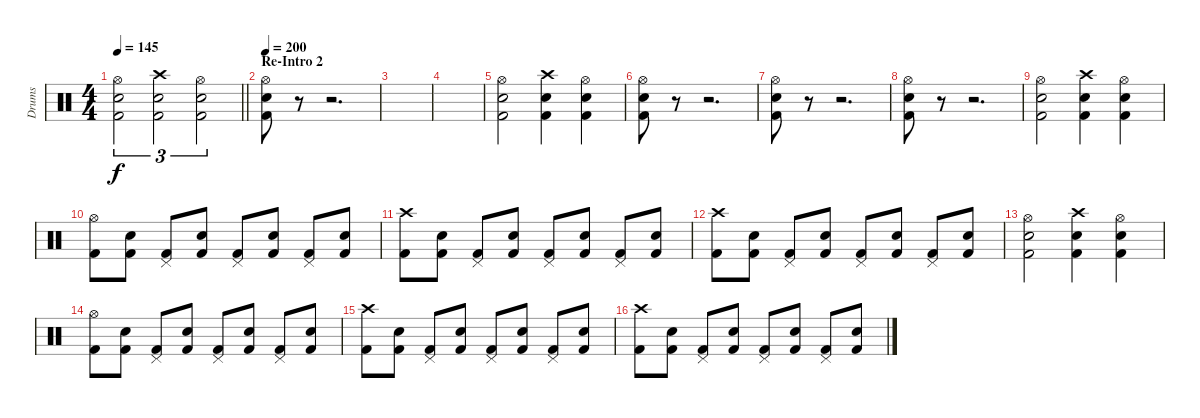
\track ("Drums" "Drums") {instrument percussion}
\staff {score}
\articulation defaults
\ts (4 4)
\tempo 145
\clef neutral
\barLineRight lightlight
\ks c
("Hi-Hat (open)" "Snare (hit) 2" "Kick (hit) 2").2{tu (3 2) dy f} ("Crash high (hit)" "Snare (hit) 2" "Kick (hit) 2").2{tu (3 2)} ("Hi-Hat (open)" "Snare (hit) 2" "Kick (hit) 2").2{tu (3 2)} |
\section ("" "Re-Intro 2")
\tempo 200
("Hi-Hat (open)" "Snare (hit) 2" "Kick (hit) 2").8 r.8 r.2{d} |
|
|
("Hi-Hat (open)" "Snare (hit) 2" "Kick (hit) 2").2 ("Crash high (hit)" "Snare (hit) 2" "Kick (hit) 2").4 ("Hi-Hat (open)" "Snare (hit) 2" "Kick (hit) 2").4 |
("Hi-Hat (open)" "Snare (hit) 2" "Kick (hit) 2").8 r.8 r.2{d} |
("Hi-Hat (open)" "Snare (hit) 2" "Kick (hit) 2").8 r.8 r.2{d} |
("Hi-Hat (open)" "Snare (hit) 2" "Kick (hit) 2").8 r.8 r.2{d} |
("Hi-Hat (open)" "Snare (hit) 2" "Kick (hit) 2").2 ("Crash high (hit)" "Snare (hit) 2" "Kick (hit) 2").4 ("Hi-Hat (open)" "Snare (hit) 2" "Kick (hit) 2").4 |
("Hi-Hat (open)" "Kick (hit) 2").8 ("Snare (hit) 2" "Kick (hit) 2").8 ("Pedal Hi-Hat (hit)" "Kick (hit) 2").8 ("Snare (hit) 2" "Kick (hit) 2").8 ("Pedal Hi-Hat (hit)" "Kick (hit) 2").8 ("Snare (hit) 2" "Kick (hit) 2").8 ("Pedal Hi-Hat (hit)" "Kick (hit) 2").8 ("Snare (hit) 2" "Kick (hit) 2").8 |
("Crash high (hit)" "Kick (hit) 2").8 ("Snare (hit) 2" "Kick (hit) 2").8 ("Pedal Hi-Hat (hit)" "Kick (hit) 2").8 ("Snare (hit) 2" "Kick (hit) 2").8 ("Pedal Hi-Hat (hit)" "Kick (hit) 2").8 ("Snare (hit) 2" "Kick (hit) 2").8 ("Pedal Hi-Hat (hit)" "Kick (hit) 2").8 ("Snare (hit) 2" "Kick (hit) 2").8 |
("Crash high (hit)" "Kick (hit) 2").8 ("Snare (hit) 2" "Kick (hit) 2").8 ("Pedal Hi-Hat (hit)" "Kick (hit) 2").8 ("Snare (hit) 2" "Kick (hit) 2").8 ("Pedal Hi-Hat (hit)" "Kick (hit) 2").8 ("Snare (hit) 2" "Kick (hit) 2").8 ("Pedal Hi-Hat (hit)" "Kick (hit) 2").8 ("Snare (hit) 2" "Kick (hit) 2").8 |
("Hi-Hat (open)" "Snare (hit) 2" "Kick (hit) 2").2 ("Crash high (hit)" "Snare (hit) 2" "Kick (hit) 2").4 ("Hi-Hat (open)" "Snare (hit) 2" "Kick (hit) 2").4 |
("Hi-Hat (open)" "Kick (hit) 2").8 ("Snare (hit) 2" "Kick (hit) 2").8 ("Pedal Hi-Hat (hit)" "Kick (hit) 2").8 ("Snare (hit) 2" "Kick (hit) 2").8 ("Pedal Hi-Hat (hit)" "Kick (hit) 2").8 ("Snare (hit) 2" "Kick (hit) 2").8 ("Pedal Hi-Hat (hit)" "Kick (hit) 2").8 ("Snare (hit) 2" "Kick (hit) 2").8 |
("Crash high (hit)" "Kick (hit) 2").8 ("Snare (hit) 2" "Kick (hit) 2").8 ("Pedal Hi-Hat (hit)" "Kick (hit) 2").8 ("Snare (hit) 2" "Kick (hit) 2").8 ("Pedal Hi-Hat (hit)" "Kick (hit) 2").8 ("Snare (hit) 2" "Kick (hit) 2").8 ("Pedal Hi-Hat (hit)" "Kick (hit) 2").8 ("Snare (hit) 2" "Kick (hit) 2").8 |
("Crash high (hit)" "Kick (hit) 2").8 ("Snare (hit) 2" "Kick (hit) 2").8 ("Pedal Hi-Hat (hit)" "Kick (hit) 2").8 ("Snare (hit) 2" "Kick (hit) 2").8 ("Pedal Hi-Hat (hit)" "Kick (hit) 2").8 ("Snare (hit) 2" "Kick (hit) 2").8 ("Pedal Hi-Hat (hit)" "Kick (hit) 2").8 ("Snare (hit) 2" "Kick (hit) 2").8
